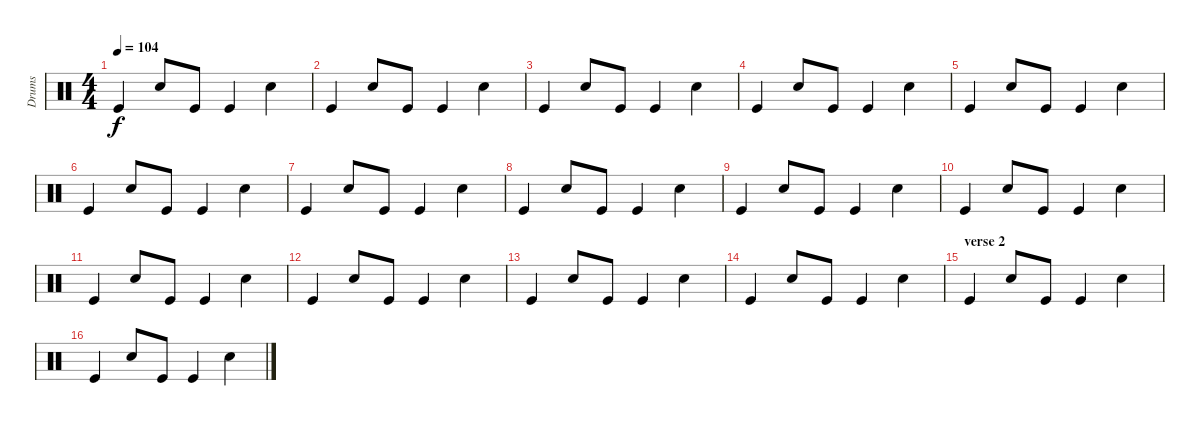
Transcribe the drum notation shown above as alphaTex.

\track ("Drums" "Drums") {instrument percussion}
\staff {score}
\articulation defaults
\ts (4 4)
\tempo 104
\clef neutral
\ks c "Kick (hit)".4{dy f} "Snare (hit) 2".8 "Kick (hit)".8 "Kick (hit)".4 "Snare (hit) 2".4
|
"Kick (hit)".4 "Snare (hit) 2".8 "Kick (hit)".8 "Kick (hit)".4 "Snare (hit) 2".4 |
"Kick (hit)".4 "Snare (hit) 2".8 "Kick (hit)".8 "Kick (hit)".4 "Snare (hit) 2".4 |
"Kick (hit)".4 "Snare (hit) 2".8 "Kick (hit)".8 "Kick (hit)".4 "Snare (hit) 2".4 |
"Kick (hit)".4 "Snare (hit) 2".8 "Kick (hit)".8 "Kick (hit)".4 "Snare (hit) 2".4 |
"Kick (hit)".4 "Snare (hit) 2".8 "Kick (hit)".8 "Kick (hit)".4 "Snare (hit) 2".4 |
"Kick (hit)".4 "Snare (hit) 2".8 "Kick (hit)".8 "Kick (hit)".4 "Snare (hit) 2".4 |
"Kick (hit)".4 "Snare (hit) 2".8 "Kick (hit)".8 "Kick (hit)".4 "Snare (hit) 2".4 |
"Kick (hit)".4 "Snare (hit) 2".8 "Kick (hit)".8 "Kick (hit)".4 "Snare (hit) 2".4 |
"Kick (hit)".4 "Snare (hit) 2".8 "Kick (hit)".8 "Kick (hit)".4 "Snare (hit) 2".4 |
"Kick (hit)".4 "Snare (hit) 2".8 "Kick (hit)".8 "Kick (hit)".4 "Snare (hit) 2".4 |
"Kick (hit)".4 "Snare (hit) 2".8 "Kick (hit)".8 "Kick (hit)".4 "Snare (hit) 2".4 |
"Kick (hit)".4 "Snare (hit) 2".8 "Kick (hit)".8 "Kick (hit)".4 "Snare (hit) 2".4 |
"Kick (hit)".4 "Snare (hit) 2".8 "Kick (hit)".8 "Kick (hit)".4 "Snare (hit) 2".4 |
\section ("" "verse 2")
"Kick (hit)".4 "Snare (hit) 2".8 "Kick (hit)".8 "Kick (hit)".4 "Snare (hit) 2".4 |
"Kick (hit)".4 "Snare (hit) 2".8 "Kick (hit)".8 "Kick (hit)".4 "Snare (hit) 2".4
